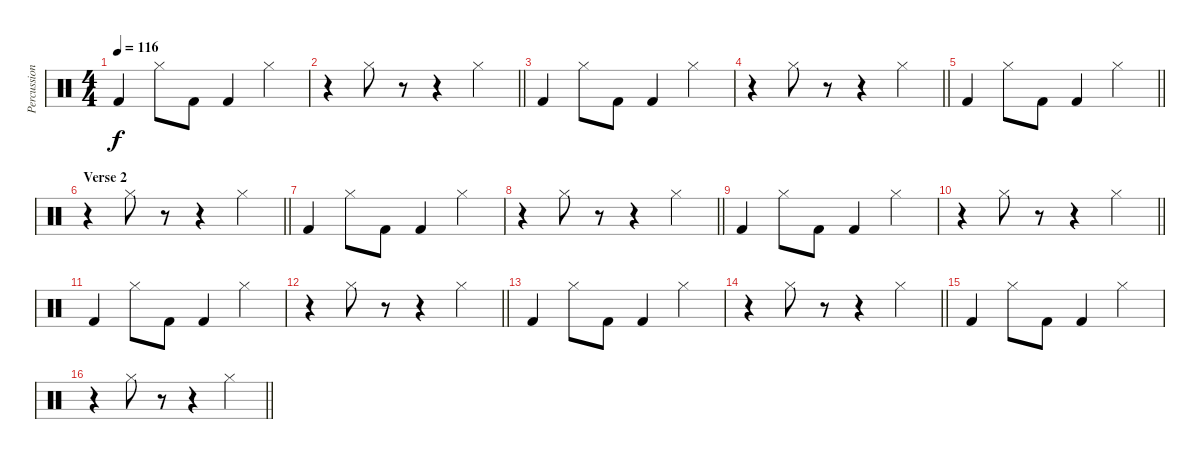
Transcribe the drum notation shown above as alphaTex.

\track ("Percussion" "Percussion") {instrument percussion}
\staff {score}
\articulation defaults
\ts (4 4)
\tempo 116
\clef neutral
\ks c "Kick (hit) 2".4{dy f} "Hi-Hat (closed)".8 "Kick (hit) 2".8 "Kick (hit) 2".4 "Hi-Hat (closed)".4
|
\barLineRight lightlight
r.4 "Hi-Hat (closed)".8 r.8 r.4 "Hi-Hat (closed)".4 |
"Kick (hit) 2".4 "Hi-Hat (closed)".8 "Kick (hit) 2".8 "Kick (hit) 2".4 "Hi-Hat (closed)".4 |
\barLineRight lightlight
r.4 "Hi-Hat (closed)".8 r.8 r.4 "Hi-Hat (closed)".4 |
\barLineRight lightlight "Kick (hit) 2".4 "Hi-Hat (closed)".8 "Kick (hit) 2".8 "Kick (hit) 2".4 "Hi-Hat (closed)".4
|
\section ("" "Verse 2")
\barLineRight lightlight
r.4 "Hi-Hat (closed)".8 r.8 r.4 "Hi-Hat (closed)".4 |
"Kick (hit) 2".4 "Hi-Hat (closed)".8 "Kick (hit) 2".8 "Kick (hit) 2".4 "Hi-Hat (closed)".4 |
\barLineRight lightlight
r.4 "Hi-Hat (closed)".8 r.8 r.4 "Hi-Hat (closed)".4 |
"Kick (hit) 2".4 "Hi-Hat (closed)".8 "Kick (hit) 2".8 "Kick (hit) 2".4 "Hi-Hat (closed)".4 |
\barLineRight lightlight
r.4 "Hi-Hat (closed)".8 r.8 r.4 "Hi-Hat (closed)".4 |
"Kick (hit) 2".4 "Hi-Hat (closed)".8 "Kick (hit) 2".8 "Kick (hit) 2".4 "Hi-Hat (closed)".4 |
\barLineRight lightlight
r.4 "Hi-Hat (closed)".8 r.8 r.4 "Hi-Hat (closed)".4 |
"Kick (hit) 2".4 "Hi-Hat (closed)".8 "Kick (hit) 2".8 "Kick (hit) 2".4 "Hi-Hat (closed)".4 |
\barLineRight lightlight
r.4 "Hi-Hat (closed)".8 r.8 r.4 "Hi-Hat (closed)".4 |
"Kick (hit) 2".4 "Hi-Hat (closed)".8 "Kick (hit) 2".8 "Kick (hit) 2".4 "Hi-Hat (closed)".4 |
\barLineRight lightlight
r.4 "Hi-Hat (closed)".8 r.8 r.4 "Hi-Hat (closed)".4
